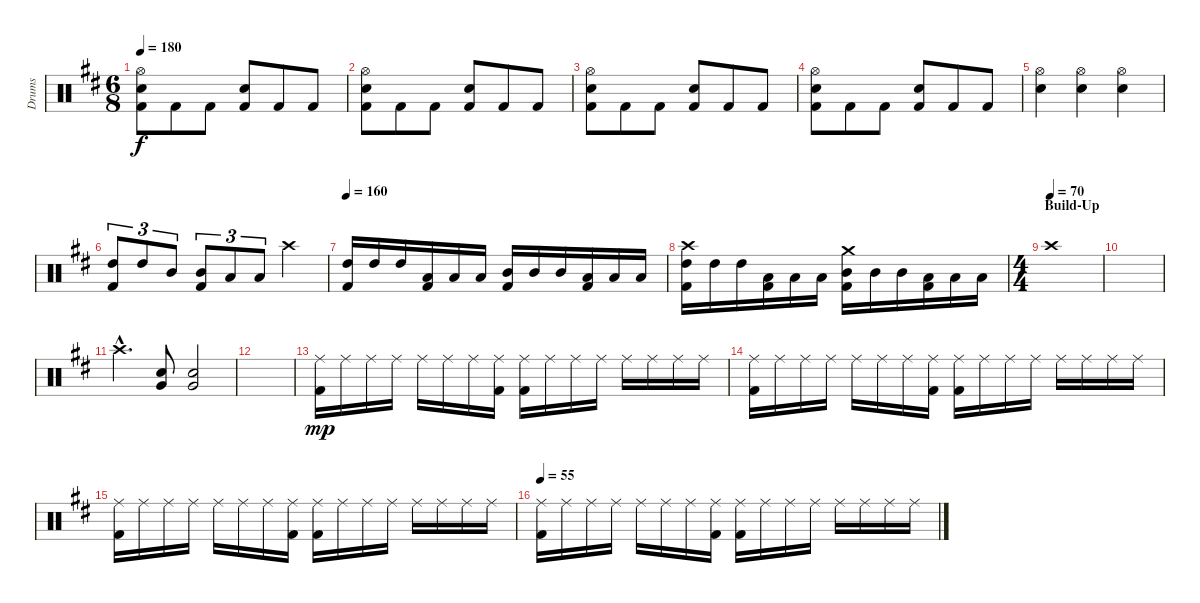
\track ("Drums" "Drums") {instrument percussion}
\staff {score}
\articulation defaults
\ts (6 8)
\tempo 180
\clef neutral
\ks d
("Hi-Hat (open)" "Snare (hit) 2" "Kick (hit) 2").8{dy f} "Kick (hit) 2".8 "Kick (hit) 2".8 ("Snare (hit) 2" "Kick (hit) 2").8 "Kick (hit) 2".8 "Kick (hit) 2".8 |
("Hi-Hat (open)" "Snare (hit) 2" "Kick (hit) 2").8 "Kick (hit) 2".8 "Kick (hit) 2".8 ("Snare (hit) 2" "Kick (hit) 2").8 "Kick (hit) 2".8 "Kick (hit) 2".8 |
("Hi-Hat (open)" "Snare (hit) 2" "Kick (hit) 2").8 "Kick (hit) 2".8 "Kick (hit) 2".8 ("Snare (hit) 2" "Kick (hit) 2").8 "Kick (hit) 2".8 "Kick (hit) 2".8 |
("Hi-Hat (open)" "Snare (hit) 2" "Kick (hit) 2").8 "Kick (hit) 2".8 "Kick (hit) 2".8 ("Snare (hit) 2" "Kick (hit) 2").8 "Kick (hit) 2".8 "Kick (hit) 2".8 |
("Hi-Hat (open)" "Snare (hit) 2").4 ("Hi-Hat (open)" "Snare (hit) 2").4 ("Hi-Hat (open)" "Snare (hit) 2").4 |
("High Tom (hit)" "Kick (hit) 2").8{tu (3 2)} "High Tom (hit)".8{tu (3 2)} "Mid Tom (hit)".8{tu (3 2)} ("Mid Tom (hit)" "Kick (hit) 2").8{tu (3 2)} "Low Tom (hit)".8{tu (3 2)} "Low Tom (hit)".8{tu (3 2)} "Crash high (hit)".4 |
\tempo 160
("High Tom (hit)" "Kick (hit) 2").16 "High Tom (hit)".16 "High Tom (hit)".16 ("Low Tom (hit)" "Kick (hit) 2").16 "Low Tom (hit)".16 "Low Tom (hit)".16 ("Mid Tom (hit)" "Kick (hit) 2").16 "Mid Tom (hit)".16 "Mid Tom (hit)".16 ("Low Floor Tom (hit)" "Kick (hit) 2").16 "Low Floor Tom (hit)".16 "Low Floor Tom (hit)".16 |
("Crash high (hit)" "High Tom (hit)" "Kick (hit) 2").16 "High Tom (hit)".16 "High Tom (hit)".16 ("Low Tom (hit)" "Kick (hit) 2").16 "Low Tom (hit)".16 "Low Tom (hit)".16 ("Crash medium (hit)" "Mid Tom (hit)" "Kick (hit) 2").16 "Mid Tom (hit)".16 "Mid Tom (hit)".16 ("Low Floor Tom (hit)" "Kick (hit) 2").16 "Low Floor Tom (hit)".16 "Low Floor Tom (hit)".16 |
\ts (4 4)
\section ("" "Build-Up")
\tempo (70)
"Crash high (hit)".1 |
|
"Crash high (hit)"{hac}.4{d} ("Very Low Tom (hit)" "Snare (hit) 2").8 ("Very Low Tom (hit)" "Snare (hit) 2").2 |
|
("Ride (middle)" "Kick (hit) 2").16{dy mp} "Ride (middle)".16 "Ride (middle)".16 "Ride (middle)".16 "Ride (middle)".16 "Ride (middle)".16 "Ride (middle)".16 ("Ride (middle)" "Kick (hit) 2").16 ("Ride (middle)" "Kick (hit) 2").16 "Ride (middle)".16 "Ride (middle)".16 "Ride (middle)".16 "Ride (middle)".16 "Ride (middle)".16 "Ride (middle)".16 "Ride (middle)".16 |
("Ride (middle)" "Kick (hit) 2").16 "Ride (middle)".16 "Ride (middle)".16 "Ride (middle)".16 "Ride (middle)".16 "Ride (middle)".16 "Ride (middle)".16 ("Ride (middle)" "Kick (hit) 2").16 ("Ride (middle)" "Kick (hit) 2").16 "Ride (middle)".16 "Ride (middle)".16 "Ride (middle)".16 "Ride (middle)".16 "Ride (middle)".16 "Ride (middle)".16 "Ride (middle)".16 |
("Ride (middle)" "Kick (hit) 2").16 "Ride (middle)".16 "Ride (middle)".16 "Ride (middle)".16 "Ride (middle)".16 "Ride (middle)".16 "Ride (middle)".16 ("Ride (middle)" "Kick (hit) 2").16 ("Ride (middle)" "Kick (hit) 2").16 "Ride (middle)".16 "Ride (middle)".16 "Ride (middle)".16 "Ride (middle)".16 "Ride (middle)".16 "Ride (middle)".16 "Ride (middle)".16 |
\tempo 55
("Ride (middle)" "Kick (hit) 2").16 "Ride (middle)".16 "Ride (middle)".16 "Ride (middle)".16 "Ride (middle)".16 "Ride (middle)".16 "Ride (middle)".16 ("Ride (middle)" "Kick (hit) 2").16 ("Ride (middle)" "Kick (hit) 2").16 "Ride (middle)".16 "Ride (middle)".16 "Ride (middle)".16 "Ride (middle)".16 "Ride (middle)".16 "Ride (middle)".16 "Ride (middle)".16
